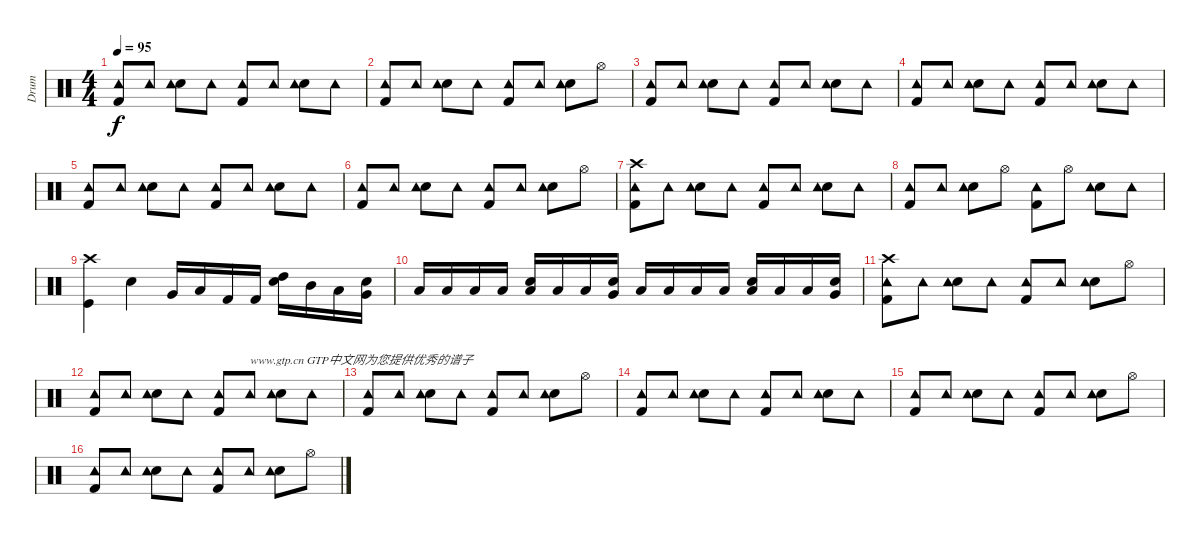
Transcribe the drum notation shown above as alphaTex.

\track ("Drum" "Drum") {instrument percussion}
\staff {score}
\articulation defaults
\ts (4 4)
\tempo 95
\clef neutral
\ks c
("Kick (hit) 2" "Tambourine (hit)").8{dy f} "Tambourine (hit)".8 ("Electric Snare (hit)" "Tambourine (hit)").8 "Tambourine (hit)".8 ("Kick (hit) 2" "Tambourine (hit)").8 "Tambourine (hit)".8 ("Electric Snare (hit)" "Tambourine (hit)").8 "Tambourine (hit)".8 |
("Kick (hit) 2" "Tambourine (hit)").8 "Tambourine (hit)".8 ("Electric Snare (hit)" "Tambourine (hit)").8 "Tambourine (hit)".8 ("Kick (hit) 2" "Tambourine (hit)").8 "Tambourine (hit)".8 ("Electric Snare (hit)" "Tambourine (hit)").8 "Hi-Hat (open)".8 |
("Kick (hit) 2" "Tambourine (hit)").8 "Tambourine (hit)".8 ("Electric Snare (hit)" "Tambourine (hit)").8 "Tambourine (hit)".8 ("Kick (hit) 2" "Tambourine (hit)").8 "Tambourine (hit)".8 ("Electric Snare (hit)" "Tambourine (hit)").8 "Tambourine (hit)".8 |
("Kick (hit) 2" "Tambourine (hit)").8 "Tambourine (hit)".8 ("Electric Snare (hit)" "Tambourine (hit)").8 "Tambourine (hit)".8 ("Kick (hit) 2" "Tambourine (hit)").8 "Tambourine (hit)".8 ("Electric Snare (hit)" "Tambourine (hit)").8 "Tambourine (hit)".8 |
("Kick (hit) 2" "Tambourine (hit)").8 "Tambourine (hit)".8 ("Electric Snare (hit)" "Tambourine (hit)").8 "Tambourine (hit)".8 ("Kick (hit) 2" "Tambourine (hit)").8 "Tambourine (hit)".8 ("Electric Snare (hit)" "Tambourine (hit)").8 "Tambourine (hit)".8 |
("Kick (hit) 2" "Tambourine (hit)").8 "Tambourine (hit)".8 ("Electric Snare (hit)" "Tambourine (hit)").8 "Tambourine (hit)".8 ("Kick (hit) 2" "Tambourine (hit)").8 "Tambourine (hit)".8 ("Electric Snare (hit)" "Tambourine (hit)").8 "Hi-Hat (open)".8 |
("Kick (hit) 2" "Tambourine (hit)" "Crash high (hit)").8 "Tambourine (hit)".8 ("Electric Snare (hit)" "Tambourine (hit)").8 "Tambourine (hit)".8 ("Kick (hit) 2" "Tambourine (hit)").8 "Tambourine (hit)".8 ("Electric Snare (hit)" "Tambourine (hit)").8 "Tambourine (hit)".8 |
("Kick (hit) 2" "Tambourine (hit)").8 "Tambourine (hit)".8 ("Electric Snare (hit)" "Tambourine (hit)").8 "Hi-Hat (open)".8 ("Kick (hit) 2" "Tambourine (hit)").8 "Hi-Hat (open)".8 ("Electric Snare (hit)" "Tambourine (hit)").8 "Tambourine (hit)".8 |
("Kick (hit)" "Crash high (hit)").4 "Snare (hit) 2".4 "Very Low Tom (hit)".16 "Low Floor Tom (hit)".16 "Kick (hit) 2".16 "Kick (hit) 2".16 ("High Tom (hit)" "Snare (hit) 2").16 "Mid Tom (hit)".16 "Low Tom (hit)".16 ("Very Low Tom (hit)" "Snare (hit) 2").16 |
"Low Floor Tom (hit)".16 "Low Floor Tom (hit)".16 "Low Floor Tom (hit)".16 "Low Floor Tom (hit)".16 ("Low Floor Tom (hit)" "Snare (hit) 2").16 "Low Floor Tom (hit)".16 "Low Floor Tom (hit)".16 ("Very Low Tom (hit)" "Snare (hit) 2").16 "Low Floor Tom (hit)".16 "Low Floor Tom (hit)".16 "Low Floor Tom (hit)".16 "Low Floor Tom (hit)".16 ("Low Floor Tom (hit)" "Snare (hit) 2").16 "Low Floor Tom (hit)".16 "Low Floor Tom (hit)".16 ("Very Low Tom (hit)" "Snare (hit) 2").16 |
("Kick (hit) 2" "Tambourine (hit)" "Crash high (hit)").8 "Tambourine (hit)".8 ("Electric Snare (hit)" "Tambourine (hit)").8 "Tambourine (hit)".8 ("Kick (hit) 2" "Tambourine (hit)").8 "Tambourine (hit)".8 ("Electric Snare (hit)" "Tambourine (hit)").8 "Hi-Hat (open)".8 |
("Kick (hit) 2" "Tambourine (hit)").8 "Tambourine (hit)".8 ("Electric Snare (hit)" "Tambourine (hit)").8 "Tambourine (hit)".8 ("Kick (hit) 2" "Tambourine (hit)").8 "Tambourine (hit)".8{txt "www.gtp.cn GTP中文网为您提供优秀的谱子"} ("Electric Snare (hit)" "Tambourine (hit)").8 "Tambourine (hit)".8 |
("Kick (hit) 2" "Tambourine (hit)").8 "Tambourine (hit)".8 ("Electric Snare (hit)" "Tambourine (hit)").8 "Tambourine (hit)".8 ("Kick (hit) 2" "Tambourine (hit)").8 "Tambourine (hit)".8 ("Electric Snare (hit)" "Tambourine (hit)").8 "Hi-Hat (open)".8 |
("Kick (hit) 2" "Tambourine (hit)").8 "Tambourine (hit)".8 ("Electric Snare (hit)" "Tambourine (hit)").8 "Tambourine (hit)".8 ("Kick (hit) 2" "Tambourine (hit)").8 "Tambourine (hit)".8 ("Electric Snare (hit)" "Tambourine (hit)").8 "Tambourine (hit)".8 |
("Kick (hit) 2" "Tambourine (hit)").8 "Tambourine (hit)".8 ("Electric Snare (hit)" "Tambourine (hit)").8 "Tambourine (hit)".8 ("Kick (hit) 2" "Tambourine (hit)").8 "Tambourine (hit)".8 ("Electric Snare (hit)" "Tambourine (hit)").8 "Hi-Hat (open)".8 |
("Kick (hit) 2" "Tambourine (hit)").8 "Tambourine (hit)".8 ("Electric Snare (hit)" "Tambourine (hit)").8 "Tambourine (hit)".8 ("Kick (hit) 2" "Tambourine (hit)").8 "Tambourine (hit)".8 ("Electric Snare (hit)" "Tambourine (hit)").8 "Hi-Hat (open)".8
